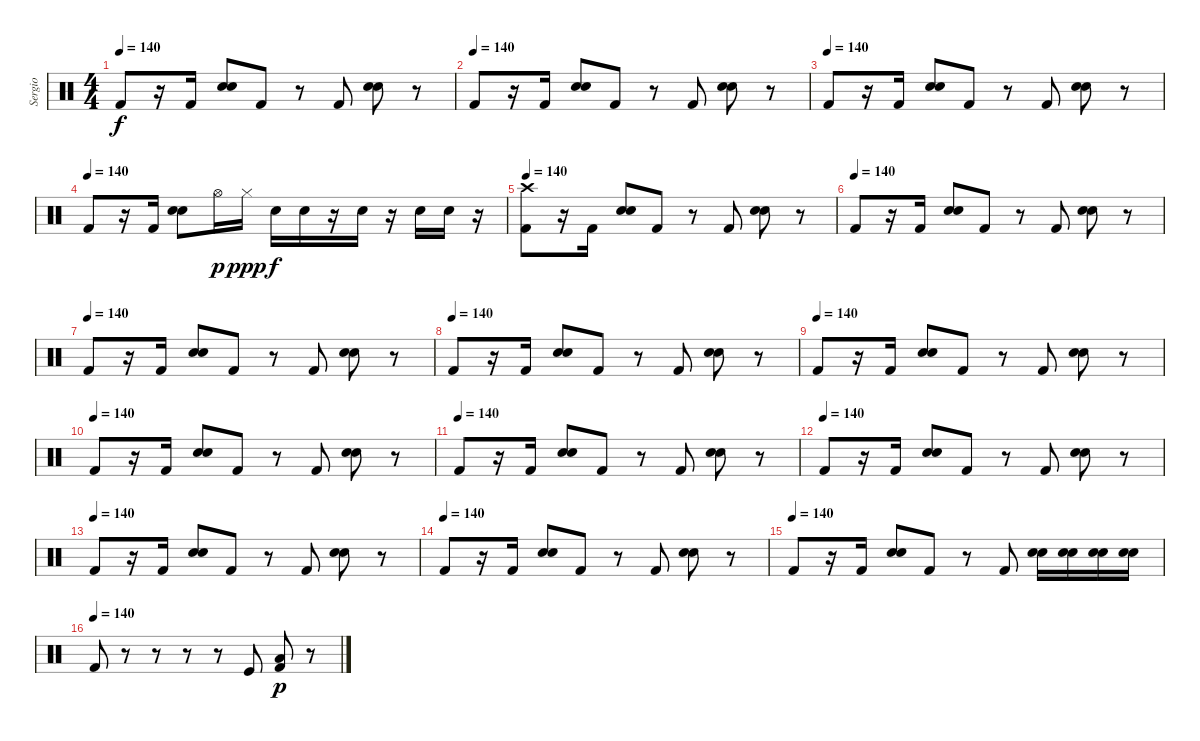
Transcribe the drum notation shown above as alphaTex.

\track ("Sergio" "Sergio") {instrument percussion}
\staff {score}
\articulation defaults
\ts (4 4)
\tempo 140
\clef neutral
\ks c "Kick (hit) 2".8{dy f}
r.16 "Kick (hit) 2".16 ("Snare (hit) 2" "Snare (hit) 2").8 "Kick (hit) 2".8 r.8 "Kick (hit) 2".8 ("Snare (hit) 2" "Snare (hit) 2").8 r.8 |
\tempo (140)
"Kick (hit) 2".8 r.16 "Kick (hit) 2".16 ("Snare (hit) 2" "Snare (hit) 2").8 "Kick (hit) 2".8 r.8 "Kick (hit) 2".8 ("Snare (hit) 2" "Snare (hit) 2").8 r.8 |
\tempo (140)
"Kick (hit) 2".8 r.16 "Kick (hit) 2".16 ("Snare (hit) 2" "Snare (hit) 2").8 "Kick (hit) 2".8 r.8 "Kick (hit) 2".8 ("Snare (hit) 2" "Snare (hit) 2").8 r.8 |
\tempo (140)
"Kick (hit) 2".8 r.16 "Kick (hit) 2".16 ("Snare (hit) 2" "Snare (hit) 2").8 "Hi-Hat (open)".16{dy p} "Hi-Hat (closed)".16{dy ppp} "Snare (hit) 2".16{dy f} "Snare (hit) 2".16 r.16 "Snare (hit) 2".16 r.16 "Snare (hit) 2".16 "Snare (hit) 2".16 r.16 |
\tempo 140
("Kick (hit) 2" "Crash high (hit)").8 r.16 "Kick (hit) 2".16 ("Snare (hit) 2" "Snare (hit) 2").8 "Kick (hit) 2".8 r.8 "Kick (hit) 2".8 ("Snare (hit) 2" "Snare (hit) 2").8 r.8 |
\tempo (140)
"Kick (hit) 2".8 r.16 "Kick (hit) 2".16 ("Snare (hit) 2" "Snare (hit) 2").8 "Kick (hit) 2".8 r.8 "Kick (hit) 2".8 ("Snare (hit) 2" "Snare (hit) 2").8 r.8 |
\tempo (140)
"Kick (hit) 2".8 r.16 "Kick (hit) 2".16 ("Snare (hit) 2" "Snare (hit) 2").8 "Kick (hit) 2".8 r.8 "Kick (hit) 2".8 ("Snare (hit) 2" "Snare (hit) 2").8 r.8 |
\tempo (140)
"Kick (hit) 2".8 r.16 "Kick (hit) 2".16 ("Snare (hit) 2" "Snare (hit) 2").8 "Kick (hit) 2".8 r.8 "Kick (hit) 2".8 ("Snare (hit) 2" "Snare (hit) 2").8 r.8 |
\tempo (140)
"Kick (hit) 2".8 r.16 "Kick (hit) 2".16 ("Snare (hit) 2" "Snare (hit) 2").8 "Kick (hit) 2".8 r.8 "Kick (hit) 2".8 ("Snare (hit) 2" "Snare (hit) 2").8 r.8 |
\tempo (140)
"Kick (hit) 2".8 r.16 "Kick (hit) 2".16 ("Snare (hit) 2" "Snare (hit) 2").8 "Kick (hit) 2".8 r.8 "Kick (hit) 2".8 ("Snare (hit) 2" "Snare (hit) 2").8 r.8 |
\tempo (140)
"Kick (hit) 2".8 r.16 "Kick (hit) 2".16 ("Snare (hit) 2" "Snare (hit) 2").8 "Kick (hit) 2".8 r.8 "Kick (hit) 2".8 ("Snare (hit) 2" "Snare (hit) 2").8 r.8 |
\tempo (140)
"Kick (hit) 2".8 r.16 "Kick (hit) 2".16 ("Snare (hit) 2" "Snare (hit) 2").8 "Kick (hit) 2".8 r.8 "Kick (hit) 2".8 ("Snare (hit) 2" "Snare (hit) 2").8 r.8 |
\tempo (140)
"Kick (hit) 2".8 r.16 "Kick (hit) 2".16 ("Snare (hit) 2" "Snare (hit) 2").8 "Kick (hit) 2".8 r.8 "Kick (hit) 2".8 ("Snare (hit) 2" "Snare (hit) 2").8 r.8 |
\tempo (140)
"Kick (hit) 2".8 r.16 "Kick (hit) 2".16 ("Snare (hit) 2" "Snare (hit) 2").8 "Kick (hit) 2".8 r.8 "Kick (hit) 2".8 ("Snare (hit) 2" "Snare (hit) 2").8 r.8 |
\tempo (140)
"Kick (hit) 2".8 r.16 "Kick (hit) 2".16 ("Snare (hit) 2" "Snare (hit) 2").8 "Kick (hit) 2".8 r.8 "Kick (hit) 2".8 ("Snare (hit) 2" "Snare (hit) 2").16 ("Snare (hit) 2" "Snare (hit) 2").16 ("Snare (hit) 2" "Snare (hit) 2").16 ("Snare (hit) 2" "Snare (hit) 2").16 |
\tempo 150
\tempo (140)
"Kick (hit) 2".8 r.8 r.8 r.8 r.8 "Kick (hit)".8 ("Kick (hit) 2" "Low Floor Tom (hit)").8{dy p} r.8
